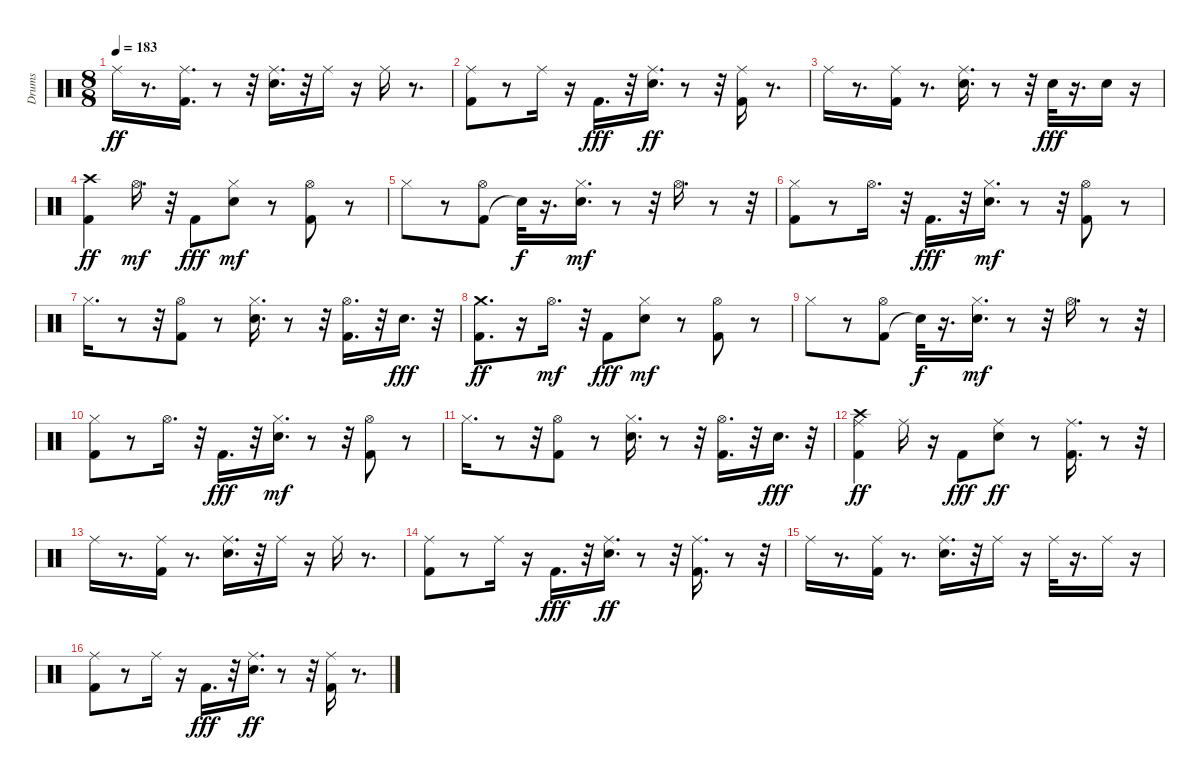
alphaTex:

\track ("Drums" "Drums") {instrument percussion}
\staff {score}
\articulation defaults
\ts (8 8)
\tempo 183
\clef neutral
\ks c "Ride (middle)".16{dy ff}
r.8{d} ("Kick (hit) 2" "Ride (middle)").16{d} r.8 r.32 ("Snare (hit) 2" "Ride (middle)").16{d} r.32 "Ride (middle)".16 r.16 "Ride (middle)".16 r.8{d} |
("Kick (hit) 2" "Ride (middle)").8 r.8 "Ride (middle)".16 r.16 "Kick (hit) 2".16{d dy fff} r.32 ("Snare (hit) 2" "Ride (middle)").16{d dy ff} r.8 r.32 ("Kick (hit) 2" "Ride (middle)").16 r.8{d} |
"Ride (middle)".16 r.8{d} ("Kick (hit) 2" "Ride (middle)").16 r.8{d} ("Snare (hit) 2" "Ride (middle)").16{d} r.8 r.32 "Snare (hit) 2".32{dy fff} r.16{d} "Snare (hit) 2".16 r.16 |
("Kick (hit) 2" "Crash high (hit)").4{dy ff} "Hi-Hat (open)".16{d dy mf} r.32 "Kick (hit) 2".8{dy fff} ("Snare (hit) 2" "Hi-Hat (closed)").8{dy mf} r.8 ("Kick (hit) 2" "Hi-Hat (open)").8 r.8 |
"Hi-Hat (closed)".8 r.8 ("Kick (hit) 2" "Hi-Hat (open)").8 "Snare (hit)"{t}.32{dy f} r.16{d} ("Snare (hit) 2" "Hi-Hat (closed)").16{d dy mf} r.8 r.32 "Hi-Hat (open)".16{d} r.8 r.32 |
("Kick (hit) 2" "Hi-Hat (closed)").8 r.8 "Hi-Hat (open)".16{d} r.32 "Kick (hit) 2".16{d dy fff} r.32 ("Snare (hit) 2" "Hi-Hat (closed)").16{d dy mf} r.8 r.32 ("Kick (hit) 2" "Hi-Hat (open)").8 r.8 |
"Hi-Hat (closed)".16{d} r.8 r.32 ("Kick (hit) 2" "Hi-Hat (open)").8 r.8 ("Snare (hit) 2" "Hi-Hat (closed)").16{d} r.8 r.32 ("Kick (hit) 2" "Hi-Hat (open)").16{d} r.32 "Snare (hit) 2".16{d dy fff} r.32 |
("Kick (hit) 2" "Crash medium (hit)").8{d dy ff} r.16 "Hi-Hat (open)".16{d dy mf} r.32 "Kick (hit) 2".8{dy fff} ("Snare (hit) 2" "Hi-Hat (closed)").8{dy mf} r.8 ("Kick (hit) 2" "Hi-Hat (open)").8 r.8 |
"Hi-Hat (closed)".8 r.8 ("Kick (hit) 2" "Hi-Hat (open)").8 "Snare (hit)"{t}.32{dy f} r.16{d} ("Snare (hit) 2" "Hi-Hat (closed)").16{d dy mf} r.8 r.32 "Hi-Hat (open)".16{d} r.8 r.32 |
("Kick (hit) 2" "Hi-Hat (closed)").8 r.8 "Hi-Hat (open)".16{d} r.32 "Kick (hit) 2".16{d dy fff} r.32 ("Snare (hit) 2" "Hi-Hat (closed)").16{d dy mf} r.8 r.32 ("Kick (hit) 2" "Hi-Hat (open)").8 r.8 |
"Hi-Hat (closed)".16{d} r.8 r.32 ("Kick (hit) 2" "Hi-Hat (open)").8 r.8 ("Snare (hit) 2" "Hi-Hat (closed)").16{d} r.8 r.32 ("Kick (hit) 2" "Hi-Hat (open)").16{d} r.32 "Snare (hit) 2".16{d dy fff} r.32 |
("Kick (hit) 2" "Ride (middle)" "Crash high (hit)").4{dy ff} "Ride (middle)".16 r.16 "Kick (hit) 2".8{dy fff} ("Snare (hit) 2" "Ride (middle)").8{dy ff} r.8 ("Kick (hit) 2" "Ride (middle)").16{d} r.8 r.32 |
"Ride (middle)".16 r.8{d} ("Kick (hit) 2" "Ride (middle)").16 r.8{d} ("Snare (hit) 2" "Ride (middle)").16{d} r.32 "Ride (middle)".16 r.16 "Ride (middle)".16 r.8{d} |
("Kick (hit) 2" "Ride (middle)").8 r.8 "Ride (middle)".16 r.16 "Kick (hit) 2".16{d dy fff} r.32 ("Snare (hit) 2" "Ride (middle)").16{d dy ff} r.8 r.32 ("Kick (hit) 2" "Ride (middle)").16{d} r.8 r.32 |
"Ride (middle)".16 r.8{d} ("Kick (hit) 2" "Ride (middle)").16 r.8{d} ("Snare (hit) 2" "Ride (middle)").16{d} r.32 "Ride (middle)".16 r.16 "Ride (middle)".32 r.16{d} "Ride (middle)".16 r.16 |
("Kick (hit) 2" "Ride (middle)").8 r.8 "Ride (middle)".16 r.16 "Kick (hit) 2".16{d dy fff} r.32 ("Snare (hit) 2" "Ride (middle)").16{d dy ff} r.8 r.32 ("Kick (hit) 2" "Ride (middle)").16 r.8{d}
